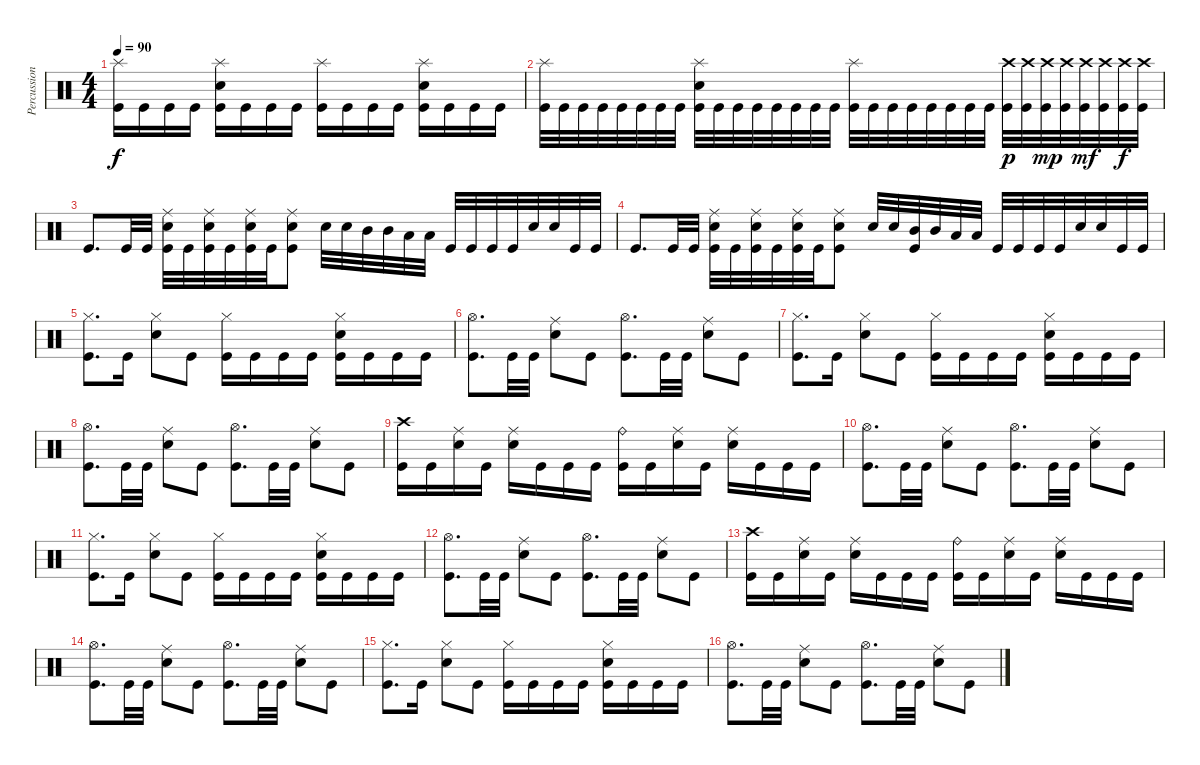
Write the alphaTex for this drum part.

\track ("Percussion" "Percussion") {instrument percussion}
\staff {score}
\articulation defaults
\ts (4 4)
\tempo 90
\clef neutral
\ks c
("Splash (hit)" "Kick (hit)").16{dy f} "Kick (hit)".16 "Kick (hit)".16 "Kick (hit)".16 ("Splash (hit)" "Electric Snare (hit)" "Kick (hit)").16 "Kick (hit)".16 "Kick (hit)".16 "Kick (hit)".16 ("Splash (hit)" "Kick (hit)").16 "Kick (hit)".16 "Kick (hit)".16 "Kick (hit)".16 ("Splash (hit)" "Electric Snare (hit)" "Kick (hit)").16 "Kick (hit)".16 "Kick (hit)".16 "Kick (hit)".16 |
("Splash (hit)" "Kick (hit)").32 "Kick (hit)".32 "Kick (hit)".32 "Kick (hit)".32 "Kick (hit)".32 "Kick (hit)".32 "Kick (hit)".32 "Kick (hit)".32 ("Splash (hit)" "Electric Snare (hit)" "Kick (hit)").32 "Kick (hit)".32 "Kick (hit)".32 "Kick (hit)".32 "Kick (hit)".32 "Kick (hit)".32 "Kick (hit)".32 "Kick (hit)".32 ("Splash (hit)" "Kick (hit)").32 "Kick (hit)".32 "Kick (hit)".32 "Kick (hit)".32 "Kick (hit)".32 "Kick (hit)".32 "Kick (hit)".32 "Kick (hit)".32 ("Crash high (hit)" "Kick (hit)").32{dy p} ("Crash high (hit)" "Kick (hit)").32 ("Crash high (hit)" "Kick (hit)").32{dy mp} ("Crash high (hit)" "Kick (hit)").32 ("Crash high (hit)" "Kick (hit)").32{dy mf} ("Crash high (hit)" "Kick (hit)").32 ("Crash high (hit)" "Kick (hit)").32{dy f} ("Crash high (hit)" "Kick (hit)").32 |
"Kick (hit)".8{d} "Kick (hit)".32 "Kick (hit)".32 ("Ride (middle)" "Electric Snare (hit)" "Kick (hit)").32 "Kick (hit)".32 ("Ride (middle)" "Electric Snare (hit)" "Kick (hit)").32 "Kick (hit)".32 ("Ride (middle)" "Electric Snare (hit)" "Kick (hit)").32 "Kick (hit)".32 ("Ride (middle)" "Electric Snare (hit)" "Kick (hit)").8 "Electric Snare (hit)".32 "Electric Snare (hit)".32 "Mid Tom (hit)".32 "Mid Tom (hit)".32 "Low Tom (hit)".32 "Low Tom (hit)".32 "Kick (hit)".32 "Kick (hit)".32 "Kick (hit)".32 "Kick (hit)".32 "Electric Snare (hit)".32 "Electric Snare (hit)".32 "Kick (hit)".32 "Kick (hit)".32 |
"Kick (hit)".8{d} "Kick (hit)".32 "Kick (hit)".32 ("Ride (middle)" "Electric Snare (hit)" "Kick (hit)").32 "Kick (hit)".32 ("Ride (middle)" "Electric Snare (hit)" "Kick (hit)").32 "Kick (hit)".32 ("Ride (middle)" "Electric Snare (hit)" "Kick (hit)").32 "Kick (hit)".32 ("Ride (middle)" "Electric Snare (hit)" "Kick (hit)").8 "Electric Snare (hit)".32 "Electric Snare (hit)".32 ("Mid Tom (hit)" "Kick (hit)").32 "Mid Tom (hit)".32 "Low Tom (hit)".32 "Low Tom (hit)".32 "Kick (hit)".32 "Kick (hit)".32 "Kick (hit)".32 "Kick (hit)".32 "Electric Snare (hit)".32 "Electric Snare (hit)".32 "Kick (hit)".32 "Kick (hit)".32 |
("Hi-Hat (closed)" "Kick (hit)").8{d} "Kick (hit)".16 ("Hi-Hat (closed)" "Electric Snare (hit)").8 "Kick (hit)".8 ("Hi-Hat (closed)" "Kick (hit)").16 "Kick (hit)".16 "Kick (hit)".16 "Kick (hit)".16 ("Hi-Hat (closed)" "Electric Snare (hit)" "Kick (hit)").16 "Kick (hit)".16 "Kick (hit)".16 "Kick (hit)".16 |
("Hi-Hat (open)" "Kick (hit)").8{d} "Kick (hit)".32 "Kick (hit)".32 ("Ride (middle)" "Electric Snare (hit)").8 "Kick (hit)".8 ("Hi-Hat (open)" "Kick (hit)").8{d} "Kick (hit)".32 "Kick (hit)".32 ("Ride (middle)" "Electric Snare (hit)").8 "Kick (hit)".8 |
("Hi-Hat (closed)" "Kick (hit)").8{d} "Kick (hit)".16 ("Hi-Hat (closed)" "Electric Snare (hit)").8 "Kick (hit)".8 ("Hi-Hat (closed)" "Kick (hit)").16 "Kick (hit)".16 "Kick (hit)".16 "Kick (hit)".16 ("Hi-Hat (closed)" "Electric Snare (hit)" "Kick (hit)").16 "Kick (hit)".16 "Kick (hit)".16 "Kick (hit)".16 |
("Hi-Hat (open)" "Kick (hit)").8{d} "Kick (hit)".32 "Kick (hit)".32 ("Ride (middle)" "Electric Snare (hit)").8 "Kick (hit)".8 ("Hi-Hat (open)" "Kick (hit)").8{d} "Kick (hit)".32 "Kick (hit)".32 ("Ride (middle)" "Electric Snare (hit)").8 "Kick (hit)".8 |
("Crash high (hit)" "Kick (hit)").16 "Kick (hit)".16 ("Ride (middle)" "Electric Snare (hit)").16 "Kick (hit)".16 ("Ride (middle)" "Electric Snare (hit)").16 "Kick (hit)".16 "Kick (hit)".16 "Kick (hit)".16 ("Ride (bell)" "Kick (hit)").16 "Kick (hit)".16 ("Ride (middle)" "Electric Snare (hit)").16 "Kick (hit)".16 ("Ride (middle)" "Electric Snare (hit)").16 "Kick (hit)".16 "Kick (hit)".16 "Kick (hit)".16 |
("Hi-Hat (open)" "Kick (hit)").8{d} "Kick (hit)".32 "Kick (hit)".32 ("Ride (middle)" "Electric Snare (hit)").8 "Kick (hit)".8 ("Hi-Hat (open)" "Kick (hit)").8{d} "Kick (hit)".32 "Kick (hit)".32 ("Ride (middle)" "Electric Snare (hit)").8 "Kick (hit)".8 |
("Hi-Hat (closed)" "Kick (hit)").8{d} "Kick (hit)".16 ("Hi-Hat (closed)" "Electric Snare (hit)").8 "Kick (hit)".8 ("Hi-Hat (closed)" "Kick (hit)").16 "Kick (hit)".16 "Kick (hit)".16 "Kick (hit)".16 ("Hi-Hat (closed)" "Electric Snare (hit)" "Kick (hit)").16 "Kick (hit)".16 "Kick (hit)".16 "Kick (hit)".16 |
("Hi-Hat (open)" "Kick (hit)").8{d} "Kick (hit)".32 "Kick (hit)".32 ("Ride (middle)" "Electric Snare (hit)").8 "Kick (hit)".8 ("Hi-Hat (open)" "Kick (hit)").8{d} "Kick (hit)".32 "Kick (hit)".32 ("Ride (middle)" "Electric Snare (hit)").8 "Kick (hit)".8 |
("Crash high (hit)" "Kick (hit)").16{volume 6} "Kick (hit)".16 ("Ride (middle)" "Electric Snare (hit)").16 "Kick (hit)".16 ("Ride (middle)" "Electric Snare (hit)").16 "Kick (hit)".16 "Kick (hit)".16 "Kick (hit)".16 ("Ride (bell)" "Kick (hit)").16 "Kick (hit)".16 ("Ride (middle)" "Electric Snare (hit)").16 "Kick (hit)".16 ("Ride (middle)" "Electric Snare (hit)").16 "Kick (hit)".16 "Kick (hit)".16 "Kick (hit)".16 |
("Hi-Hat (open)" "Kick (hit)").8{d} "Kick (hit)".32 "Kick (hit)".32 ("Ride (middle)" "Electric Snare (hit)").8 "Kick (hit)".8 ("Hi-Hat (open)" "Kick (hit)").8{d} "Kick (hit)".32 "Kick (hit)".32 ("Ride (middle)" "Electric Snare (hit)").8 "Kick (hit)".8 |
("Hi-Hat (closed)" "Kick (hit)").8{d} "Kick (hit)".16 ("Hi-Hat (closed)" "Electric Snare (hit)").8 "Kick (hit)".8 ("Hi-Hat (closed)" "Kick (hit)").16 "Kick (hit)".16 "Kick (hit)".16 "Kick (hit)".16 ("Hi-Hat (closed)" "Electric Snare (hit)" "Kick (hit)").16 "Kick (hit)".16 "Kick (hit)".16 "Kick (hit)".16 |
("Hi-Hat (open)" "Kick (hit)").8{d} "Kick (hit)".32 "Kick (hit)".32 ("Ride (middle)" "Electric Snare (hit)").8 "Kick (hit)".8 ("Hi-Hat (open)" "Kick (hit)").8{d} "Kick (hit)".32 "Kick (hit)".32 ("Ride (middle)" "Electric Snare (hit)").8 "Kick (hit)".8
